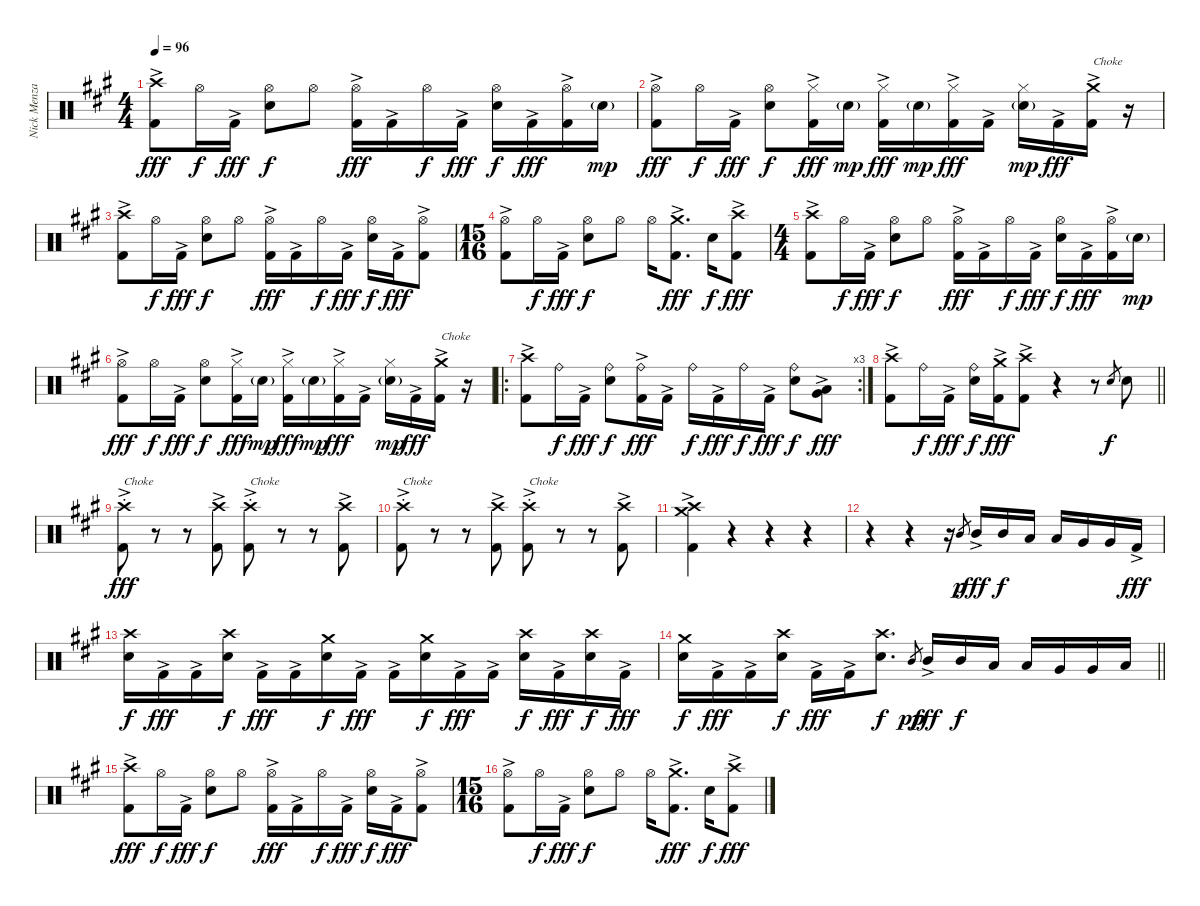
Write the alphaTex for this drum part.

\track ("Nick Menza" "Nick Menza") {instrument percussion}
\staff {score}
\articulation defaults
\ts (4 4)
\tempo 96
\clef neutral
\ks f#minor
("Crash high (hit)" "Kick (hit) 2"{ac}).8{dy fff} "Hi-Hat (open)".16{dy f} "Kick (hit) 2"{ac}.16{dy fff} ("Hi-Hat (open)" "Snare (hit) 2").8{dy f} "Hi-Hat (open)".8 ("Hi-Hat (open)" "Kick (hit) 2"{ac}).16{dy fff} "Kick (hit) 2"{ac}.16 "Hi-Hat (open)".16{dy f} "Kick (hit) 2"{ac}.16{dy fff} ("Hi-Hat (open)" "Snare (hit) 2").16{dy f} "Kick (hit) 2"{ac}.16{dy fff} ("Hi-Hat (open)" "Kick (hit) 2"{ac}).16 "Snare (hit) 2"{g}.16{dy mp} |
("Hi-Hat (open)" "Kick (hit) 2"{ac}).8{dy fff} "Hi-Hat (open)".16{dy f} "Kick (hit) 2"{ac}.16{dy fff} ("Hi-Hat (open)" "Snare (hit) 2").8{dy f} ("Hi-Hat (closed)" "Kick (hit) 2"{ac}).16{dy fff} "Snare (hit) 2"{g}.16{dy mp} ("Hi-Hat (closed)" "Kick (hit) 2"{ac}).16{dy fff} "Snare (hit) 2"{g}.16{dy mp} ("Hi-Hat (closed)" "Kick (hit) 2"{ac}).16{dy fff} "Kick (hit) 2"{ac}.16 ("Hi-Hat (closed)" "Snare (hit) 2"{g}).16{dy mp} "Kick (hit) 2"{ac}.16{dy fff} ("Crash medium (hit)" "Kick (hit) 2"{ac}).16{txt "Choke"} r.16 |
("Crash high (hit)" "Kick (hit) 2"{ac}).8 "Hi-Hat (open)".16{dy f} "Kick (hit) 2"{ac}.16{dy fff} ("Hi-Hat (open)" "Snare (hit) 2").8{dy f} "Hi-Hat (open)".8 ("Hi-Hat (open)" "Kick (hit) 2"{ac}).16{dy fff} "Kick (hit) 2"{ac}.16 "Hi-Hat (open)".16{dy f} "Kick (hit) 2"{ac}.16{dy fff} ("Hi-Hat (open)" "Snare (hit) 2").16{dy f} "Kick (hit) 2"{ac}.16{dy fff} ("Hi-Hat (open)" "Kick (hit) 2"{ac}).8 |
\ts (15 16)
("Hi-Hat (open)" "Kick (hit) 2"{ac}).8 "Hi-Hat (open)".16{dy f} "Kick (hit) 2"{ac}.16{dy fff} ("Hi-Hat (open)" "Snare (hit) 2").8{dy f} "Hi-Hat (open)".8 "Hi-Hat (open)".16 ("Crash medium (hit)" "Kick (hit) 2"{ac}).8{d dy fff} "Snare (hit) 2".16{dy f} ("Crash high (hit)" "Kick (hit) 2"{ac}).8{dy fff} |
\ts (4 4)
("Crash high (hit)" "Kick (hit) 2"{ac}).8 "Hi-Hat (open)".16{dy f} "Kick (hit) 2"{ac}.16{dy fff} ("Hi-Hat (open)" "Snare (hit) 2").8{dy f} "Hi-Hat (open)".8 ("Hi-Hat (open)" "Kick (hit) 2"{ac}).16{dy fff} "Kick (hit) 2"{ac}.16 "Hi-Hat (open)".16{dy f} "Kick (hit) 2"{ac}.16{dy fff} ("Hi-Hat (open)" "Snare (hit) 2").16{dy f} "Kick (hit) 2"{ac}.16{dy fff} ("Hi-Hat (open)" "Kick (hit) 2"{ac}).16 "Snare (hit) 2"{g}.16{dy mp} |
("Hi-Hat (open)" "Kick (hit) 2"{ac}).8{dy fff} "Hi-Hat (open)".16{dy f} "Kick (hit) 2"{ac}.16{dy fff} ("Hi-Hat (open)" "Snare (hit) 2").8{dy f} ("Hi-Hat (closed)" "Kick (hit) 2"{ac}).16{dy fff} "Snare (hit) 2"{g}.16{dy mp} ("Hi-Hat (closed)" "Kick (hit) 2"{ac}).16{dy fff} "Snare (hit) 2"{g}.16{dy mp} ("Hi-Hat (closed)" "Kick (hit) 2"{ac}).16{dy fff} "Kick (hit) 2"{ac}.16 ("Hi-Hat (closed)" "Snare (hit) 2"{g}).16{dy mp} "Kick (hit) 2"{ac}.16{dy fff} ("Crash medium (hit)" "Kick (hit) 2"{ac}).16{txt "Choke"} r.16 |
\ro
\rc 3
("Crash high (hit)" "Kick (hit) 2"{ac}).8 "Ride (bell)".16{dy f} "Kick (hit) 2"{ac}.16{dy fff} ("Ride (bell)" "Snare (hit) 2").8{dy f} ("Ride (bell)" "Kick (hit) 2"{ac}).16{dy fff} "Kick (hit) 2"{ac}.16 "Ride (bell)".16{dy f} "Kick (hit) 2"{ac}.16{dy fff} "Ride (bell)".16{dy f} "Kick (hit) 2"{ac}.16{dy fff} ("Ride (bell)" "Snare (hit) 2").8{dy f} ("Low Tom (hit)"{ac} "Very Low Tom (hit)"{ac}).8{dy fff} |
\barLineRight lightlight
("Crash high (hit)" "Kick (hit) 2"{ac}).8 "Ride (bell)".16{dy f} "Kick (hit) 2"{ac}.16{dy fff} ("Ride (bell)" "Snare (hit) 2").16{dy f} ("Crash medium (hit)" "Kick (hit) 2"{ac}).16{dy fff} ("Crash high (hit)" "Kick (hit) 2"{ac}).8 r.4 r.8 "Snare (hit) 2".8{gr dy f} "Snare (hit) 2".8 |
("Crash high (hit)"{st} "Kick (hit) 2"{ac}).8{txt "Choke " dy fff} r.8 r.8 ("Crash high (hit)" "Kick (hit) 2"{ac}).8 ("Crash high (hit)"{st} "Kick (hit) 2"{ac}).8{txt "Choke"} r.8 r.8 ("Crash high (hit)" "Kick (hit) 2"{ac}).8 |
("Crash high (hit)"{st} "Kick (hit) 2"{ac}).8{txt "Choke"} r.8 r.8 ("Crash high (hit)" "Kick (hit) 2"{ac}).8 ("Crash high (hit)"{st} "Kick (hit) 2"{ac}).8{txt "Choke"} r.8 r.8 ("Crash high (hit)" "Kick (hit) 2"{ac}).8 |
("Crash high (hit)" "Crash medium (hit)" "Kick (hit) 2"{ac}).4 r.4 r.4 r.4 |
r.4 r.4 r.16 "Mid Tom (hit)".8{gr dy p} "Mid Tom (hit)"{ac}.16{dy fff} "Mid Tom (hit)".16{dy f} "Low Tom (hit)".16 "Low Tom (hit)".16 "Very Low Tom (hit)".16 "Very Low Tom (hit)".16 "Kick (hit) 2"{ac}.16{dy fff} |
("Crash high (hit)" "Snare (hit) 2").16{dy f} "Kick (hit) 2"{ac}.16{dy fff} "Kick (hit) 2"{ac}.16 ("Crash high (hit)" "Snare (hit) 2").16{dy f} "Kick (hit) 2"{ac}.16{dy fff} "Kick (hit) 2"{ac}.16 ("Crash medium (hit)" "Snare (hit) 2").16{dy f} "Kick (hit) 2"{ac}.16{dy fff} "Kick (hit) 2"{ac}.16 ("Crash medium (hit)" "Snare (hit) 2").16{dy f} "Kick (hit) 2"{ac}.16{dy fff} "Kick (hit) 2"{ac}.16 ("Crash high (hit)" "Snare (hit) 2").16{dy f} "Kick (hit) 2"{ac}.16{dy fff} ("Crash high (hit)" "Snare (hit) 2").16{dy f} "Kick (hit) 2"{ac}.16{dy fff} |
\barLineRight lightlight
("Crash medium (hit)" "Snare (hit) 2").16{dy f} "Kick (hit) 2"{ac}.16{dy fff} "Kick (hit) 2"{ac}.16 ("Crash high (hit)" "Snare (hit) 2").16{dy f} "Kick (hit) 2"{ac}.16{dy fff} "Kick (hit) 2"{ac}.16 ("Crash high (hit)" "Snare (hit) 2").8{d dy f} "Mid Tom (hit)".8{gr dy pp} "Mid Tom (hit)"{ac}.16{dy fff} "Mid Tom (hit)".16{dy f} "Low Tom (hit)".16 "Low Tom (hit)".16 "Very Low Tom (hit)".16 "Very Low Tom (hit)".16 "Low Floor Tom (hit)".16 |
("Crash high (hit)" "Kick (hit) 2"{ac}).8{dy fff} "Hi-Hat (open)".16{dy f} "Kick (hit) 2"{ac}.16{dy fff} ("Hi-Hat (open)" "Snare (hit) 2").8{dy f} "Hi-Hat (open)".8 ("Hi-Hat (open)" "Kick (hit) 2"{ac}).16{dy fff} "Kick (hit) 2"{ac}.16 "Hi-Hat (open)".16{dy f} "Kick (hit) 2"{ac}.16{dy fff} ("Hi-Hat (open)" "Snare (hit) 2").16{dy f} "Kick (hit) 2"{ac}.16{dy fff} ("Hi-Hat (open)" "Kick (hit) 2"{ac}).8 |
\ts (15 16)
("Hi-Hat (open)" "Kick (hit) 2"{ac}).8 "Hi-Hat (open)".16{dy f} "Kick (hit) 2"{ac}.16{dy fff} ("Hi-Hat (open)" "Snare (hit) 2").8{dy f} "Hi-Hat (open)".8 "Hi-Hat (open)".16 ("Crash medium (hit)" "Kick (hit) 2"{ac}).8{d dy fff} "Snare (hit) 2".16{dy f} ("Crash high (hit)" "Kick (hit) 2"{ac}).8{dy fff}
